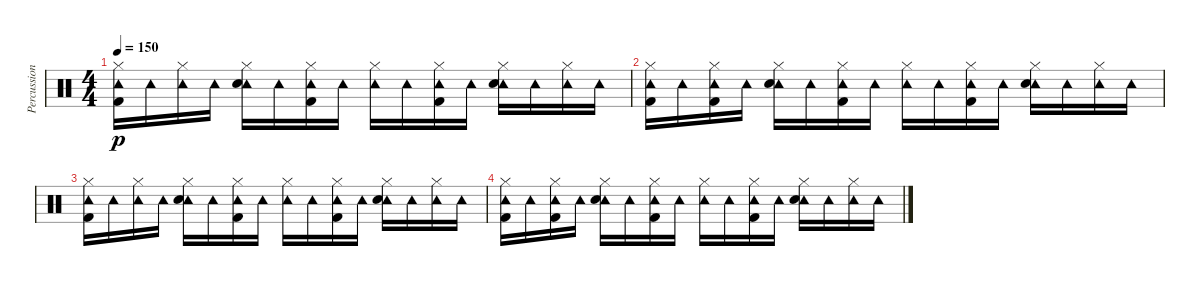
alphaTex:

\track ("Percussion" "Percussion") {instrument percussion}
\staff {score}
\articulation defaults
\ts (4 4)
\tempo 150
\clef neutral
\ks c
("Hi-Hat (closed)" "Tambourine (hit)" "Kick (hit) 2").16{dy p} "Tambourine (hit)".16 ("Hi-Hat (closed)" "Tambourine (hit)").16 "Tambourine (hit)".16 ("Hi-Hat (closed)" "Tambourine (hit)" "Electric Snare (hit)").16 "Tambourine (hit)".16 ("Hi-Hat (closed)" "Tambourine (hit)" "Kick (hit) 2").16 "Tambourine (hit)".16 ("Hi-Hat (closed)" "Tambourine (hit)").16 "Tambourine (hit)".16 ("Hi-Hat (closed)" "Tambourine (hit)" "Kick (hit) 2").16 "Tambourine (hit)".16 ("Hi-Hat (closed)" "Tambourine (hit)" "Electric Snare (hit)").16 "Tambourine (hit)".16 ("Hi-Hat (closed)" "Tambourine (hit)").16 "Tambourine (hit)".16 |
("Hi-Hat (closed)" "Tambourine (hit)" "Kick (hit) 2").16 "Tambourine (hit)".16 ("Hi-Hat (closed)" "Tambourine (hit)" "Kick (hit) 2").16 "Tambourine (hit)".16 ("Hi-Hat (closed)" "Tambourine (hit)" "Electric Snare (hit)").16 "Tambourine (hit)".16 ("Hi-Hat (closed)" "Tambourine (hit)" "Kick (hit) 2").16 "Tambourine (hit)".16 ("Hi-Hat (closed)" "Tambourine (hit)").16 "Tambourine (hit)".16 ("Hi-Hat (closed)" "Tambourine (hit)" "Kick (hit) 2").16 "Tambourine (hit)".16 ("Hi-Hat (closed)" "Tambourine (hit)" "Electric Snare (hit)").16 "Tambourine (hit)".16 ("Hi-Hat (closed)" "Tambourine (hit)").16 "Tambourine (hit)".16 |
("Hi-Hat (closed)" "Tambourine (hit)" "Kick (hit) 2").16 "Tambourine (hit)".16 ("Hi-Hat (closed)" "Tambourine (hit)").16 "Tambourine (hit)".16 ("Hi-Hat (closed)" "Tambourine (hit)" "Electric Snare (hit)").16 "Tambourine (hit)".16 ("Hi-Hat (closed)" "Tambourine (hit)" "Kick (hit) 2").16 "Tambourine (hit)".16 ("Hi-Hat (closed)" "Tambourine (hit)").16 "Tambourine (hit)".16 ("Hi-Hat (closed)" "Tambourine (hit)" "Kick (hit) 2").16 "Tambourine (hit)".16 ("Hi-Hat (closed)" "Tambourine (hit)" "Electric Snare (hit)").16 "Tambourine (hit)".16 ("Hi-Hat (closed)" "Tambourine (hit)").16 "Tambourine (hit)".16 |
("Hi-Hat (closed)" "Tambourine (hit)" "Kick (hit) 2").16 "Tambourine (hit)".16 ("Hi-Hat (closed)" "Tambourine (hit)" "Kick (hit) 2").16 "Tambourine (hit)".16 ("Hi-Hat (closed)" "Tambourine (hit)" "Electric Snare (hit)").16 "Tambourine (hit)".16 ("Hi-Hat (closed)" "Tambourine (hit)" "Kick (hit) 2").16 "Tambourine (hit)".16 ("Hi-Hat (closed)" "Tambourine (hit)").16 "Tambourine (hit)".16 ("Hi-Hat (closed)" "Tambourine (hit)" "Kick (hit) 2").16 "Tambourine (hit)".16 ("Hi-Hat (closed)" "Tambourine (hit)" "Electric Snare (hit)").16 "Tambourine (hit)".16 ("Hi-Hat (closed)" "Tambourine (hit)").16 "Tambourine (hit)".16
